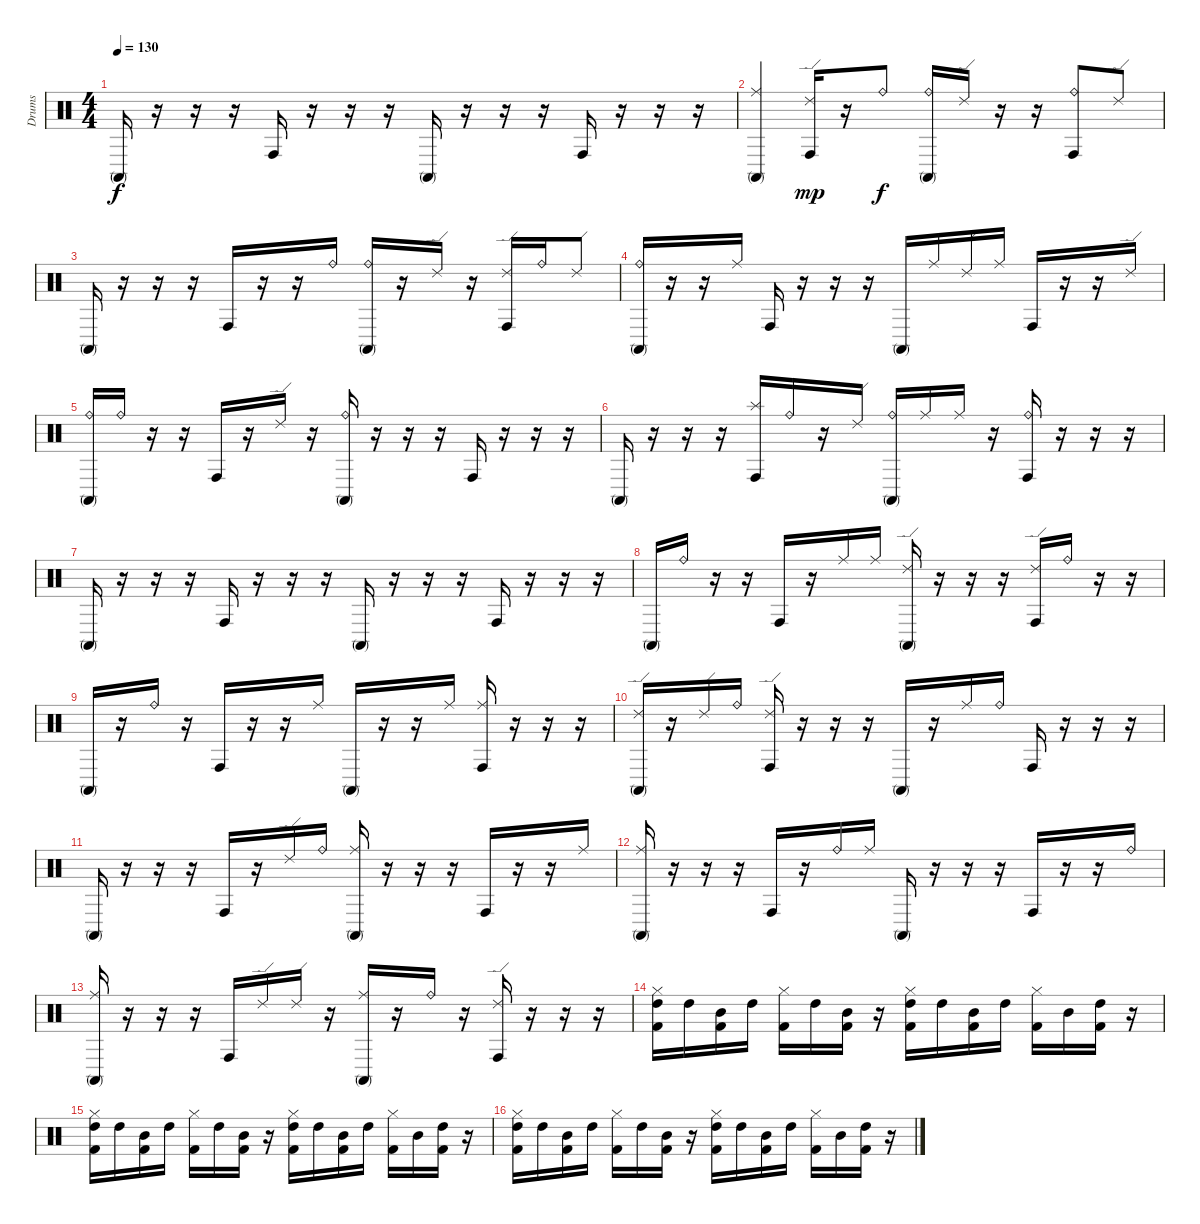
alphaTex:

\track ("Drums" "Drums") {instrument percussion}
\staff {score}
\articulation defaults
\ts (4 4)
\tempo 130
\clef neutral
\ks c "Conga high (mute)".16{dy f}
r.16 r.16 r.16 "Conga high (hit)".16 r.16 r.16 r.16 "Conga high (mute)".16 r.16 r.16 r.16 "Conga high (hit)".16 r.16 r.16 r.16 |
("Ride (middle)" "Conga high (mute)").4 ("Ride (edge) 2" "Conga high (hit)").16{dy mp} r.16 "Ride (bell)".8{dy f} ("Ride (bell)" "Conga high (mute)").16 "Ride (edge) 2".16 r.16 r.16 ("Ride (bell)" "Conga high (hit)").8 "Ride (edge) 2".8 |
"Conga high (mute)".16 r.16 r.16 r.16 "Conga high (hit)".16 r.16 r.16 "Ride (bell)".16 ("Ride (bell)" "Conga high (mute)").16 r.16 "Ride (edge) 2".16 r.16 ("Ride (edge) 2" "Conga high (hit)").16 "Ride (bell)".16 "Ride (edge) 2".8 |
("Ride (bell)" "Conga high (mute)").16 r.16 r.16 "Ride (middle)".16 "Conga high (hit)".16 r.16 r.16 r.16 "Conga high (mute)".16 "Ride (middle)".16 "Ride (edge) 2".16 "Ride (middle)".16 "Conga high (hit)".16 r.16 r.16 "Ride (edge) 2".16 |
("Ride (bell)" "Conga high (mute)").16 "Ride (bell)".16 r.16 r.16 "Conga high (hit)".16 r.16 "Ride (edge) 2".16 r.16 ("Ride (bell)" "Conga high (mute)").16 r.16 r.16 r.16 "Conga high (hit)".16 r.16 r.16 r.16 |
"Conga high (mute)".16 r.16 r.16 r.16 ("Splash (hit)" "Conga high (hit)").16 "Ride (bell)".16 r.16 "Ride (edge) 2".16 ("Ride (bell)" "Conga high (mute)").16 "Ride (middle)".16 "Ride (middle)".16 r.16 ("Ride (bell)" "Conga high (hit)").16 r.16 r.16 r.16 |
"Conga high (mute)".16 r.16 r.16 r.16 "Conga high (hit)".16 r.16 r.16 r.16 "Conga high (mute)".16 r.16 r.16 r.16 "Conga high (hit)".16 r.16 r.16 r.16 |
"Conga high (mute)".16 "Ride (bell)".16 r.16 r.16 "Conga high (hit)".16 r.16 "Ride (middle)".16 "Ride (middle)".16 ("Ride (edge) 2" "Conga high (mute)").16 r.16 r.16 r.16 ("Ride (edge) 2" "Conga high (hit)").16 "Ride (bell)".16 r.16 r.16 |
"Conga high (mute)".16 r.16 "Ride (bell)".16 r.16 "Conga high (hit)".16 r.16 r.16 "Ride (middle)".16 "Conga high (mute)".16 r.16 r.16 "Ride (middle)".16 ("Ride (middle)" "Conga high (hit)").16 r.16 r.16 r.16 |
("Ride (edge) 2" "Conga high (mute)").16 r.16 "Ride (edge) 2".16 "Ride (bell)".16 ("Ride (edge) 2" "Conga high (hit)").16 r.16 r.16 r.16 "Conga high (mute)".16 r.16 "Ride (middle)".16 "Ride (bell)".16 "Conga high (hit)".16 r.16 r.16 r.16 |
"Conga high (mute)".16 r.16 r.16 r.16 "Conga high (hit)".16 r.16 "Ride (edge) 2".16 "Ride (bell)".16 ("Ride (middle)" "Conga high (mute)").16 r.16 r.16 r.16 "Conga high (hit)".16 r.16 r.16 "Ride (middle)".16 |
("Ride (middle)" "Conga high (mute)").16 r.16 r.16 r.16 "Conga high (hit)".16 r.16 "Ride (bell)".16 "Ride (middle)".16 "Conga high (mute)".16 r.16 r.16 r.16 "Conga high (hit)".16 r.16 r.16 "Ride (bell)".16 |
("Ride (middle)" "Conga high (mute)").16 r.16 r.16 r.16 "Conga high (hit)".16 "Ride (edge) 2".16 "Ride (edge) 2".16 r.16 ("Ride (middle)" "Conga high (mute)").16 r.16 "Ride (bell)".16 r.16 ("Ride (edge) 2" "Conga high (hit)").16 r.16 r.16 r.16 |
("Hi-Hat (closed)" "Kick (hit) 2" "High Tom (hit)").16 "High Tom (hit)".16 ("Kick (hit) 2" "Mid Tom (hit)").16 "High Tom (hit)".16 ("Hi-Hat (closed)" "Kick (hit) 2").16 "High Tom (hit)".16 ("Kick (hit) 2" "Mid Tom (hit)").16 r.16 ("Hi-Hat (closed)" "Kick (hit) 2" "High Tom (hit)").16 "High Tom (hit)".16 ("Kick (hit) 2" "Mid Tom (hit)").16 "High Tom (hit)".16 ("Hi-Hat (closed)" "Kick (hit) 2").16 "Mid Tom (hit)".16 ("Kick (hit) 2" "High Tom (hit)").16 r.16 |
("Hi-Hat (closed)" "Kick (hit) 2" "High Tom (hit)").16 "High Tom (hit)".16 ("Kick (hit) 2" "Mid Tom (hit)").16 "High Tom (hit)".16 ("Hi-Hat (closed)" "Kick (hit) 2").16 "High Tom (hit)".16 ("Kick (hit) 2" "Mid Tom (hit)").16 r.16 ("Hi-Hat (closed)" "Kick (hit) 2" "High Tom (hit)").16 "High Tom (hit)".16 ("Kick (hit) 2" "Mid Tom (hit)").16 "High Tom (hit)".16 ("Hi-Hat (closed)" "Kick (hit) 2").16 "Mid Tom (hit)".16 ("Kick (hit) 2" "High Tom (hit)").16 r.16 |
("Hi-Hat (closed)" "Kick (hit) 2" "High Tom (hit)").16 "High Tom (hit)".16 ("Kick (hit) 2" "Mid Tom (hit)").16 "High Tom (hit)".16 ("Hi-Hat (closed)" "Kick (hit) 2").16 "High Tom (hit)".16 ("Kick (hit) 2" "Mid Tom (hit)").16 r.16 ("Hi-Hat (closed)" "Kick (hit) 2" "High Tom (hit)").16 "High Tom (hit)".16 ("Kick (hit) 2" "Mid Tom (hit)").16 "High Tom (hit)".16 ("Hi-Hat (closed)" "Kick (hit) 2").16 "Mid Tom (hit)".16 ("Kick (hit) 2" "High Tom (hit)").16 r.16
